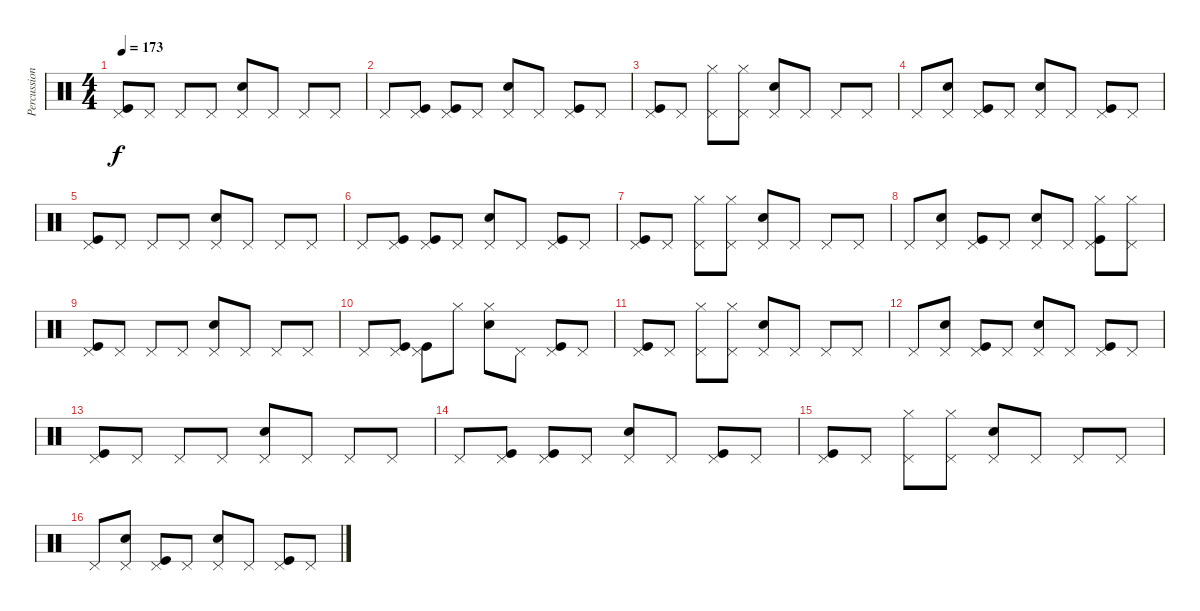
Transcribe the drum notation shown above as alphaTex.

\track ("Percussion" "Percussion") {instrument percussion}
\staff {score}
\articulation defaults
\ts (4 4)
\tempo 173
\clef neutral
\ks c
("Kick (hit)" "Pedal Hi-Hat (hit)").8{dy f} "Pedal Hi-Hat (hit)".8 "Pedal Hi-Hat (hit)".8 "Pedal Hi-Hat (hit)".8 ("Snare (hit) 2" "Pedal Hi-Hat (hit)").8 "Pedal Hi-Hat (hit)".8 "Pedal Hi-Hat (hit)".8 "Pedal Hi-Hat (hit)".8 |
"Pedal Hi-Hat (hit)".8 ("Kick (hit)" "Pedal Hi-Hat (hit)").8 ("Kick (hit)" "Pedal Hi-Hat (hit)").8 "Pedal Hi-Hat (hit)".8 ("Snare (hit) 2" "Pedal Hi-Hat (hit)").8 "Pedal Hi-Hat (hit)".8 ("Kick (hit)" "Pedal Hi-Hat (hit)").8 "Pedal Hi-Hat (hit)".8 |
("Kick (hit)" "Pedal Hi-Hat (hit)").8 "Pedal Hi-Hat (hit)".8 ("Hi-Hat (closed)" "Pedal Hi-Hat (hit)").8 ("Hi-Hat (closed)" "Pedal Hi-Hat (hit)").8 ("Snare (hit) 2" "Pedal Hi-Hat (hit)").8 "Pedal Hi-Hat (hit)".8 "Pedal Hi-Hat (hit)".8 "Pedal Hi-Hat (hit)".8 |
"Pedal Hi-Hat (hit)".8 ("Snare (hit) 2" "Pedal Hi-Hat (hit)").8 ("Kick (hit)" "Pedal Hi-Hat (hit)").8 "Pedal Hi-Hat (hit)".8 ("Snare (hit) 2" "Pedal Hi-Hat (hit)").8 "Pedal Hi-Hat (hit)".8 ("Kick (hit)" "Pedal Hi-Hat (hit)").8 "Pedal Hi-Hat (hit)".8 |
("Kick (hit)" "Pedal Hi-Hat (hit)").8 "Pedal Hi-Hat (hit)".8 "Pedal Hi-Hat (hit)".8 "Pedal Hi-Hat (hit)".8 ("Snare (hit) 2" "Pedal Hi-Hat (hit)").8 "Pedal Hi-Hat (hit)".8 "Pedal Hi-Hat (hit)".8 "Pedal Hi-Hat (hit)".8 |
"Pedal Hi-Hat (hit)".8 ("Kick (hit)" "Pedal Hi-Hat (hit)").8 ("Kick (hit)" "Pedal Hi-Hat (hit)").8 "Pedal Hi-Hat (hit)".8 ("Snare (hit) 2" "Pedal Hi-Hat (hit)").8 "Pedal Hi-Hat (hit)".8 ("Kick (hit)" "Pedal Hi-Hat (hit)").8 "Pedal Hi-Hat (hit)".8 |
("Kick (hit)" "Pedal Hi-Hat (hit)").8 "Pedal Hi-Hat (hit)".8 ("Hi-Hat (closed)" "Pedal Hi-Hat (hit)").8 ("Hi-Hat (closed)" "Pedal Hi-Hat (hit)").8 ("Snare (hit) 2" "Pedal Hi-Hat (hit)").8 "Pedal Hi-Hat (hit)".8 "Pedal Hi-Hat (hit)".8 "Pedal Hi-Hat (hit)".8 |
"Pedal Hi-Hat (hit)".8 ("Snare (hit) 2" "Pedal Hi-Hat (hit)").8 ("Kick (hit)" "Pedal Hi-Hat (hit)").8 "Pedal Hi-Hat (hit)".8 ("Snare (hit) 2" "Pedal Hi-Hat (hit)").8 "Pedal Hi-Hat (hit)".8 ("Kick (hit)" "Hi-Hat (closed)" "Pedal Hi-Hat (hit)").8 ("Hi-Hat (closed)" "Pedal Hi-Hat (hit)").8 |
("Kick (hit)" "Pedal Hi-Hat (hit)").8 "Pedal Hi-Hat (hit)".8 "Pedal Hi-Hat (hit)".8 "Pedal Hi-Hat (hit)".8 ("Snare (hit) 2" "Pedal Hi-Hat (hit)").8 "Pedal Hi-Hat (hit)".8 "Pedal Hi-Hat (hit)".8 "Pedal Hi-Hat (hit)".8 |
"Pedal Hi-Hat (hit)".8 ("Kick (hit)" "Pedal Hi-Hat (hit)").8 ("Kick (hit)" "Pedal Hi-Hat (hit)").8 "Hi-Hat (closed)".8 ("Snare (hit) 2" "Hi-Hat (closed)").8 "Pedal Hi-Hat (hit)".8 ("Kick (hit)" "Pedal Hi-Hat (hit)").8 "Pedal Hi-Hat (hit)".8 |
("Kick (hit)" "Pedal Hi-Hat (hit)").8 "Pedal Hi-Hat (hit)".8 ("Hi-Hat (closed)" "Pedal Hi-Hat (hit)").8 ("Hi-Hat (closed)" "Pedal Hi-Hat (hit)").8 ("Snare (hit) 2" "Pedal Hi-Hat (hit)").8 "Pedal Hi-Hat (hit)".8 "Pedal Hi-Hat (hit)".8 "Pedal Hi-Hat (hit)".8 |
"Pedal Hi-Hat (hit)".8 ("Snare (hit) 2" "Pedal Hi-Hat (hit)").8 ("Kick (hit)" "Pedal Hi-Hat (hit)").8 "Pedal Hi-Hat (hit)".8 ("Snare (hit) 2" "Pedal Hi-Hat (hit)").8 "Pedal Hi-Hat (hit)".8 ("Kick (hit)" "Pedal Hi-Hat (hit)").8 "Pedal Hi-Hat (hit)".8 |
("Kick (hit)" "Pedal Hi-Hat (hit)").8 "Pedal Hi-Hat (hit)".8 "Pedal Hi-Hat (hit)".8 "Pedal Hi-Hat (hit)".8 ("Snare (hit) 2" "Pedal Hi-Hat (hit)").8 "Pedal Hi-Hat (hit)".8 "Pedal Hi-Hat (hit)".8 "Pedal Hi-Hat (hit)".8 |
"Pedal Hi-Hat (hit)".8 ("Kick (hit)" "Pedal Hi-Hat (hit)").8 ("Kick (hit)" "Pedal Hi-Hat (hit)").8 "Pedal Hi-Hat (hit)".8 ("Snare (hit) 2" "Pedal Hi-Hat (hit)").8 "Pedal Hi-Hat (hit)".8 ("Kick (hit)" "Pedal Hi-Hat (hit)").8 "Pedal Hi-Hat (hit)".8 |
("Kick (hit)" "Pedal Hi-Hat (hit)").8 "Pedal Hi-Hat (hit)".8 ("Hi-Hat (closed)" "Pedal Hi-Hat (hit)").8 ("Hi-Hat (closed)" "Pedal Hi-Hat (hit)").8 ("Snare (hit) 2" "Pedal Hi-Hat (hit)").8 "Pedal Hi-Hat (hit)".8 "Pedal Hi-Hat (hit)".8 "Pedal Hi-Hat (hit)".8 |
"Pedal Hi-Hat (hit)".8 ("Snare (hit) 2" "Pedal Hi-Hat (hit)").8 ("Kick (hit)" "Pedal Hi-Hat (hit)").8 "Pedal Hi-Hat (hit)".8 ("Snare (hit) 2" "Pedal Hi-Hat (hit)").8 "Pedal Hi-Hat (hit)".8 ("Kick (hit)" "Pedal Hi-Hat (hit)").8 "Pedal Hi-Hat (hit)".8
